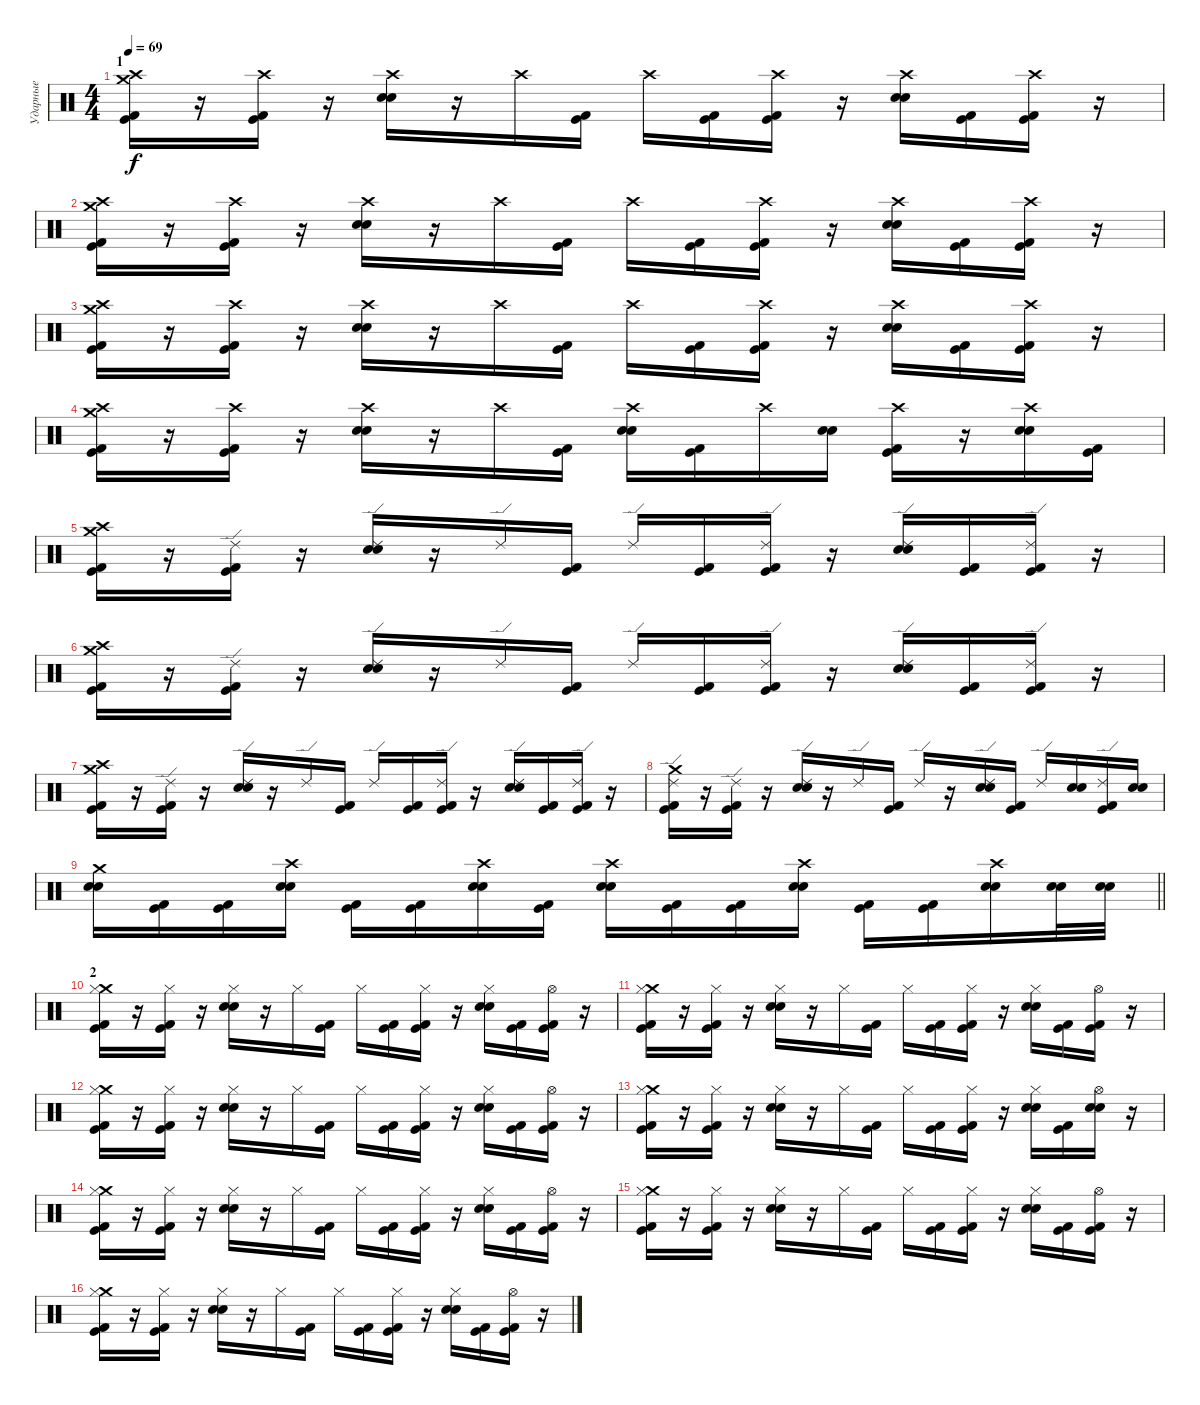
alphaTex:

\track ("Ударные" "Ударные") {instrument percussion}
\staff {score}
\articulation defaults
\ts (4 4)
\section ("" "1")
\tempo 69
\clef neutral
\ks c
("Crash medium (hit)" "Crash high (hit)" "Kick (hit) 2" "Kick (hit)").16{dy f} r.16 ("Crash high (hit)" "Kick (hit) 2" "Kick (hit)").16 r.16 ("Crash high (hit)" "Electric Snare (hit)" "Electric Snare (hit)").16 r.16 "Crash high (hit)".16 ("Kick (hit) 2" "Kick (hit)").16 "Crash high (hit)".16 ("Kick (hit) 2" "Kick (hit)").16 ("Crash high (hit)" "Kick (hit) 2" "Kick (hit)").16 r.16 ("Crash high (hit)" "Electric Snare (hit)" "Electric Snare (hit)").16 ("Kick (hit) 2" "Kick (hit)").16 ("Crash high (hit)" "Kick (hit) 2" "Kick (hit)").16 r.16 |
("Crash medium (hit)" "Crash high (hit)" "Kick (hit) 2" "Kick (hit)").16 r.16 ("Crash high (hit)" "Kick (hit) 2" "Kick (hit)").16 r.16 ("Crash high (hit)" "Electric Snare (hit)" "Electric Snare (hit)").16 r.16 "Crash high (hit)".16 ("Kick (hit) 2" "Kick (hit)").16 "Crash high (hit)".16 ("Kick (hit) 2" "Kick (hit)").16 ("Crash high (hit)" "Kick (hit) 2" "Kick (hit)").16 r.16 ("Crash high (hit)" "Electric Snare (hit)" "Electric Snare (hit)").16 ("Kick (hit) 2" "Kick (hit)").16 ("Crash high (hit)" "Kick (hit) 2" "Kick (hit)").16 r.16 |
("Crash medium (hit)" "Crash high (hit)" "Kick (hit) 2" "Kick (hit)").16 r.16 ("Crash high (hit)" "Kick (hit) 2" "Kick (hit)").16 r.16 ("Crash high (hit)" "Electric Snare (hit)" "Electric Snare (hit)").16 r.16 "Crash high (hit)".16 ("Kick (hit) 2" "Kick (hit)").16 "Crash high (hit)".16 ("Kick (hit) 2" "Kick (hit)").16 ("Crash high (hit)" "Kick (hit) 2" "Kick (hit)").16 r.16 ("Crash high (hit)" "Electric Snare (hit)" "Electric Snare (hit)").16 ("Kick (hit) 2" "Kick (hit)").16 ("Crash high (hit)" "Kick (hit) 2" "Kick (hit)").16 r.16 |
("Crash medium (hit)" "Crash high (hit)" "Kick (hit) 2" "Kick (hit)").16 r.16 ("Crash high (hit)" "Kick (hit) 2" "Kick (hit)").16 r.16 ("Crash high (hit)" "Electric Snare (hit)" "Electric Snare (hit)").16 r.16 "Crash high (hit)".16 ("Kick (hit) 2" "Kick (hit)").16 ("Crash high (hit)" "Electric Snare (hit)" "Electric Snare (hit)").16 ("Kick (hit) 2" "Kick (hit)").16 "Crash high (hit)".16 ("Electric Snare (hit)" "Electric Snare (hit)").16 ("Crash high (hit)" "Kick (hit) 2" "Kick (hit)").16 r.16 ("Crash high (hit)" "Electric Snare (hit)" "Electric Snare (hit)").16 ("Kick (hit) 2" "Kick (hit)").16 |
("Crash medium (hit)" "Crash high (hit)" "Kick (hit) 2" "Kick (hit)").16 r.16 ("Ride (edge) 2" "Kick (hit) 2" "Kick (hit)").16 r.16 ("Ride (edge) 2" "Electric Snare (hit)" "Electric Snare (hit)").16 r.16 "Ride (edge) 2".16 ("Kick (hit) 2" "Kick (hit)").16 "Ride (edge) 2".16 ("Kick (hit) 2" "Kick (hit)").16 ("Ride (edge) 2" "Kick (hit) 2" "Kick (hit)").16 r.16 ("Ride (edge) 2" "Electric Snare (hit)" "Electric Snare (hit)").16 ("Kick (hit) 2" "Kick (hit)").16 ("Ride (edge) 2" "Kick (hit) 2" "Kick (hit)").16 r.16 |
("Crash medium (hit)" "Crash high (hit)" "Kick (hit) 2" "Kick (hit)").16 r.16 ("Ride (edge) 2" "Kick (hit) 2" "Kick (hit)").16 r.16 ("Ride (edge) 2" "Electric Snare (hit)" "Electric Snare (hit)").16 r.16 "Ride (edge) 2".16 ("Kick (hit) 2" "Kick (hit)").16 "Ride (edge) 2".16 ("Kick (hit) 2" "Kick (hit)").16 ("Ride (edge) 2" "Kick (hit) 2" "Kick (hit)").16 r.16 ("Ride (edge) 2" "Electric Snare (hit)" "Electric Snare (hit)").16 ("Kick (hit) 2" "Kick (hit)").16 ("Ride (edge) 2" "Kick (hit) 2" "Kick (hit)").16 r.16 |
("Crash medium (hit)" "Crash high (hit)" "Kick (hit) 2" "Kick (hit)").16 r.16 ("Ride (edge) 2" "Kick (hit) 2" "Kick (hit)").16 r.16 ("Ride (edge) 2" "Electric Snare (hit)" "Electric Snare (hit)").16 r.16 "Ride (edge) 2".16 ("Kick (hit) 2" "Kick (hit)").16 "Ride (edge) 2".16 ("Kick (hit) 2" "Kick (hit)").16 ("Ride (edge) 2" "Kick (hit) 2" "Kick (hit)").16 r.16 ("Ride (edge) 2" "Electric Snare (hit)" "Electric Snare (hit)").16 ("Kick (hit) 2" "Kick (hit)").16 ("Ride (edge) 2" "Kick (hit) 2" "Kick (hit)").16 r.16 |
("Crash medium (hit)" "Ride (edge) 2" "Kick (hit) 2" "Kick (hit)").16 r.16 ("Ride (edge) 2" "Kick (hit) 2" "Kick (hit)").16 r.16 ("Ride (edge) 2" "Electric Snare (hit)" "Electric Snare (hit)").16 r.16 "Ride (edge) 2".16 ("Kick (hit) 2" "Kick (hit)").16 "Ride (edge) 2".16 r.16 ("Ride (edge) 2" "Electric Snare (hit)" "Electric Snare (hit)").16 ("Kick (hit) 2" "Kick (hit)").16 "Ride (edge) 2".16 ("Electric Snare (hit)" "Electric Snare (hit)").16 ("Ride (edge) 2" "Kick (hit) 2" "Kick (hit)").16 ("Electric Snare (hit)" "Electric Snare (hit)").16 |
\barLineRight lightlight
("Crash medium (hit)" "Electric Snare (hit)" "Electric Snare (hit)").16 ("Kick (hit) 2" "Kick (hit)").16 ("Kick (hit) 2" "Kick (hit)").16 ("Crash high (hit)" "Electric Snare (hit)" "Electric Snare (hit)").16 ("Kick (hit) 2" "Kick (hit)").16 ("Kick (hit) 2" "Kick (hit)").16 ("Crash high (hit)" "Electric Snare (hit)" "Electric Snare (hit)").16 ("Kick (hit) 2" "Kick (hit)").16 ("Crash high (hit)" "Electric Snare (hit)" "Electric Snare (hit)").16 ("Kick (hit) 2" "Kick (hit)").16 ("Kick (hit) 2" "Kick (hit)").16 ("Crash high (hit)" "Electric Snare (hit)" "Electric Snare (hit)").16 ("Kick (hit) 2" "Kick (hit)").16 ("Kick (hit) 2" "Kick (hit)").16 ("Crash high (hit)" "Electric Snare (hit)" "Electric Snare (hit)").16 ("Electric Snare (hit)" "Electric Snare (hit)").32 ("Electric Snare (hit)" "Electric Snare (hit)").32 |
\section ("" "2")
("Crash medium (hit)" "Hi-Hat (closed)" "Kick (hit) 2" "Kick (hit)").16 r.16 ("Hi-Hat (closed)" "Kick (hit) 2" "Kick (hit)").16 r.16 ("Hi-Hat (closed)" "Electric Snare (hit)" "Electric Snare (hit)").16 r.16 "Hi-Hat (closed)".16 ("Kick (hit) 2" "Kick (hit)").16 "Hi-Hat (closed)".16 ("Kick (hit) 2" "Kick (hit)").16 ("Hi-Hat (closed)" "Kick (hit) 2" "Kick (hit)").16 r.16 ("Hi-Hat (closed)" "Electric Snare (hit)" "Electric Snare (hit)").16 ("Kick (hit) 2" "Kick (hit)").16 ("Hi-Hat (open)" "Kick (hit) 2" "Kick (hit)").16 r.16 |
("Crash medium (hit)" "Hi-Hat (closed)" "Kick (hit) 2" "Kick (hit)").16 r.16 ("Hi-Hat (closed)" "Kick (hit) 2" "Kick (hit)").16 r.16 ("Hi-Hat (closed)" "Electric Snare (hit)" "Electric Snare (hit)").16 r.16 "Hi-Hat (closed)".16 ("Kick (hit) 2" "Kick (hit)").16 "Hi-Hat (closed)".16 ("Kick (hit) 2" "Kick (hit)").16 ("Hi-Hat (closed)" "Kick (hit) 2" "Kick (hit)").16 r.16 ("Hi-Hat (closed)" "Electric Snare (hit)" "Electric Snare (hit)").16 ("Kick (hit) 2" "Kick (hit)").16 ("Hi-Hat (open)" "Kick (hit) 2" "Kick (hit)").16 r.16 |
("Crash medium (hit)" "Hi-Hat (closed)" "Kick (hit) 2" "Kick (hit)").16 r.16 ("Hi-Hat (closed)" "Kick (hit) 2" "Kick (hit)").16 r.16 ("Hi-Hat (closed)" "Electric Snare (hit)" "Electric Snare (hit)").16 r.16 "Hi-Hat (closed)".16 ("Kick (hit) 2" "Kick (hit)").16 "Hi-Hat (closed)".16 ("Kick (hit) 2" "Kick (hit)").16 ("Hi-Hat (closed)" "Kick (hit) 2" "Kick (hit)").16 r.16 ("Hi-Hat (closed)" "Electric Snare (hit)" "Electric Snare (hit)").16 ("Kick (hit) 2" "Kick (hit)").16 ("Hi-Hat (open)" "Kick (hit) 2" "Kick (hit)").16 r.16 |
("Crash medium (hit)" "Hi-Hat (closed)" "Kick (hit) 2" "Kick (hit)").16 r.16 ("Hi-Hat (closed)" "Kick (hit) 2" "Kick (hit)").16 r.16 ("Hi-Hat (closed)" "Electric Snare (hit)" "Electric Snare (hit)").16 r.16 "Hi-Hat (closed)".16 ("Kick (hit) 2" "Kick (hit)").16 "Hi-Hat (closed)".16 ("Kick (hit) 2" "Kick (hit)").16 ("Hi-Hat (closed)" "Kick (hit) 2" "Kick (hit)").16 r.16 ("Hi-Hat (closed)" "Electric Snare (hit)" "Electric Snare (hit)").16 ("Kick (hit) 2" "Kick (hit)").16 ("Hi-Hat (open)" "Electric Snare (hit)" "Electric Snare (hit)").16 r.16 |
("Crash medium (hit)" "Hi-Hat (closed)" "Kick (hit) 2" "Kick (hit)").16 r.16 ("Hi-Hat (closed)" "Kick (hit) 2" "Kick (hit)").16 r.16 ("Hi-Hat (closed)" "Electric Snare (hit)" "Electric Snare (hit)").16 r.16 "Hi-Hat (closed)".16 ("Kick (hit) 2" "Kick (hit)").16 "Hi-Hat (closed)".16 ("Kick (hit) 2" "Kick (hit)").16 ("Hi-Hat (closed)" "Kick (hit) 2" "Kick (hit)").16 r.16 ("Hi-Hat (closed)" "Electric Snare (hit)" "Electric Snare (hit)").16 ("Kick (hit) 2" "Kick (hit)").16 ("Hi-Hat (open)" "Kick (hit) 2" "Kick (hit)").16 r.16 |
("Crash medium (hit)" "Hi-Hat (closed)" "Kick (hit) 2" "Kick (hit)").16 r.16 ("Hi-Hat (closed)" "Kick (hit) 2" "Kick (hit)").16 r.16 ("Hi-Hat (closed)" "Electric Snare (hit)" "Electric Snare (hit)").16 r.16 "Hi-Hat (closed)".16 ("Kick (hit) 2" "Kick (hit)").16 "Hi-Hat (closed)".16 ("Kick (hit) 2" "Kick (hit)").16 ("Hi-Hat (closed)" "Kick (hit) 2" "Kick (hit)").16 r.16 ("Hi-Hat (closed)" "Electric Snare (hit)" "Electric Snare (hit)").16 ("Kick (hit) 2" "Kick (hit)").16 ("Hi-Hat (open)" "Kick (hit) 2" "Kick (hit)").16 r.16 |
("Crash medium (hit)" "Hi-Hat (closed)" "Kick (hit) 2" "Kick (hit)").16 r.16 ("Hi-Hat (closed)" "Kick (hit) 2" "Kick (hit)").16 r.16 ("Hi-Hat (closed)" "Electric Snare (hit)" "Electric Snare (hit)").16 r.16 "Hi-Hat (closed)".16 ("Kick (hit) 2" "Kick (hit)").16 "Hi-Hat (closed)".16 ("Kick (hit) 2" "Kick (hit)").16 ("Hi-Hat (closed)" "Kick (hit) 2" "Kick (hit)").16 r.16 ("Hi-Hat (closed)" "Electric Snare (hit)" "Electric Snare (hit)").16 ("Kick (hit) 2" "Kick (hit)").16 ("Hi-Hat (open)" "Kick (hit) 2" "Kick (hit)").16 r.16
